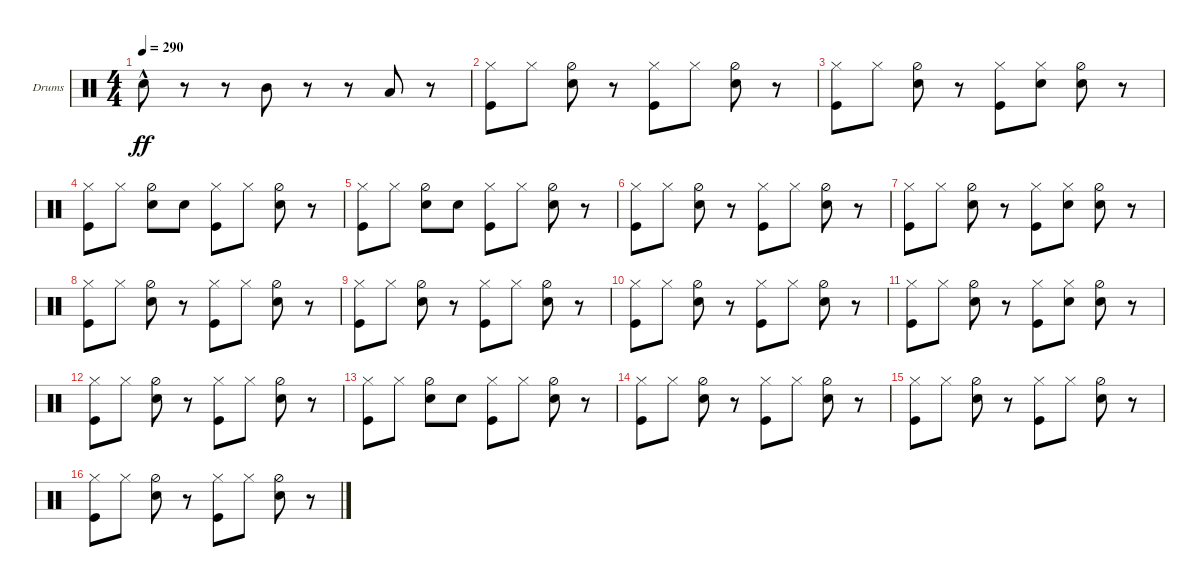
\defaultSystemsLayout 4
\bracketExtendMode groupsimilarinstruments
\firstSystemTrackNameOrientation horizontal
\otherSystemsTrackNameOrientation horizontal
\track ("Drumkit" "Drums") {instrument percussion}
\staff {score}
\articulation defaults
\ts (4 4)
\tempo 290
\clef neutral
\ks c "Snare (hit) 2"{hac}.8{dy ff}
r.8 r.8 "Mid Tom (hit)".8 r.8 r.8 "Low Tom (hit)".8 r.8 |
("Kick (hit)" "Hi-Hat (closed)").8 "Hi-Hat (closed)".8 ("Snare (hit) 2" "Hi-Hat (half)").8 r.8 ("Kick (hit)" "Hi-Hat (closed)").8 "Hi-Hat (closed)".8 ("Snare (hit) 2" "Hi-Hat (half)").8 r.8 |
("Kick (hit)" "Hi-Hat (closed)").8 "Hi-Hat (closed)".8 ("Snare (hit) 2" "Hi-Hat (half)").8 r.8 ("Kick (hit)" "Hi-Hat (closed)").8 ("Snare (hit) 2" "Hi-Hat (closed)").8 ("Snare (hit) 2" "Hi-Hat (half)").8 r.8 |
("Kick (hit)" "Hi-Hat (closed)").8 "Hi-Hat (closed)".8 ("Snare (hit) 2" "Hi-Hat (half)").8 "Snare (hit) 2".8 ("Kick (hit)" "Hi-Hat (closed)").8 "Hi-Hat (closed)".8 ("Snare (hit) 2" "Hi-Hat (half)").8 r.8 |
("Kick (hit)" "Hi-Hat (closed)").8 "Hi-Hat (closed)".8 ("Snare (hit) 2" "Hi-Hat (half)").8 "Snare (hit) 2".8 ("Kick (hit)" "Hi-Hat (closed)").8 "Hi-Hat (closed)".8 ("Snare (hit) 2" "Hi-Hat (half)").8 r.8 |
("Kick (hit)" "Hi-Hat (closed)").8 "Hi-Hat (closed)".8 ("Snare (hit) 2" "Hi-Hat (half)").8 r.8 ("Kick (hit)" "Hi-Hat (closed)").8 "Hi-Hat (closed)".8 ("Snare (hit) 2" "Hi-Hat (half)").8 r.8 |
("Kick (hit)" "Hi-Hat (closed)").8 "Hi-Hat (closed)".8 ("Snare (hit) 2" "Hi-Hat (half)").8 r.8 ("Kick (hit)" "Hi-Hat (closed)").8 ("Snare (hit) 2" "Hi-Hat (closed)").8 ("Snare (hit) 2" "Hi-Hat (half)").8 r.8 |
("Kick (hit)" "Hi-Hat (closed)").8 "Hi-Hat (closed)".8 ("Snare (hit) 2" "Hi-Hat (half)").8 r.8 ("Kick (hit)" "Hi-Hat (closed)").8 "Hi-Hat (closed)".8 ("Snare (hit) 2" "Hi-Hat (half)").8 r.8 |
("Kick (hit)" "Hi-Hat (closed)").8 "Hi-Hat (closed)".8 ("Snare (hit) 2" "Hi-Hat (half)").8 r.8 ("Kick (hit)" "Hi-Hat (closed)").8 "Hi-Hat (closed)".8 ("Snare (hit) 2" "Hi-Hat (half)").8 r.8 |
("Kick (hit)" "Hi-Hat (closed)").8 "Hi-Hat (closed)".8 ("Snare (hit) 2" "Hi-Hat (half)").8 r.8 ("Kick (hit)" "Hi-Hat (closed)").8 "Hi-Hat (closed)".8 ("Snare (hit) 2" "Hi-Hat (half)").8 r.8 |
("Kick (hit)" "Hi-Hat (closed)").8 "Hi-Hat (closed)".8 ("Snare (hit) 2" "Hi-Hat (half)").8 r.8 ("Kick (hit)" "Hi-Hat (closed)").8 ("Snare (hit) 2" "Hi-Hat (closed)").8 ("Snare (hit) 2" "Hi-Hat (half)").8 r.8 |
("Kick (hit)" "Hi-Hat (closed)").8 "Hi-Hat (closed)".8 ("Snare (hit) 2" "Hi-Hat (half)").8 r.8 ("Kick (hit)" "Hi-Hat (closed)").8 "Hi-Hat (closed)".8 ("Snare (hit) 2" "Hi-Hat (half)").8 r.8 |
("Kick (hit)" "Hi-Hat (closed)").8 "Hi-Hat (closed)".8 ("Snare (hit) 2" "Hi-Hat (half)").8 "Snare (hit) 2".8 ("Kick (hit)" "Hi-Hat (closed)").8 "Hi-Hat (closed)".8 ("Snare (hit) 2" "Hi-Hat (half)").8 r.8 |
("Kick (hit)" "Hi-Hat (closed)").8 "Hi-Hat (closed)".8 ("Snare (hit) 2" "Hi-Hat (half)").8 r.8 ("Kick (hit)" "Hi-Hat (closed)").8 "Hi-Hat (closed)".8 ("Snare (hit) 2" "Hi-Hat (half)").8 r.8 |
("Kick (hit)" "Hi-Hat (closed)").8 "Hi-Hat (closed)".8 ("Snare (hit) 2" "Hi-Hat (half)").8 r.8 ("Kick (hit)" "Hi-Hat (closed)").8 "Hi-Hat (closed)".8 ("Snare (hit) 2" "Hi-Hat (half)").8 r.8 |
("Kick (hit)" "Hi-Hat (closed)").8 "Hi-Hat (closed)".8 ("Snare (hit) 2" "Hi-Hat (half)").8 r.8 ("Kick (hit)" "Hi-Hat (closed)").8 "Hi-Hat (closed)".8 ("Snare (hit) 2" "Hi-Hat (half)").8 r.8
